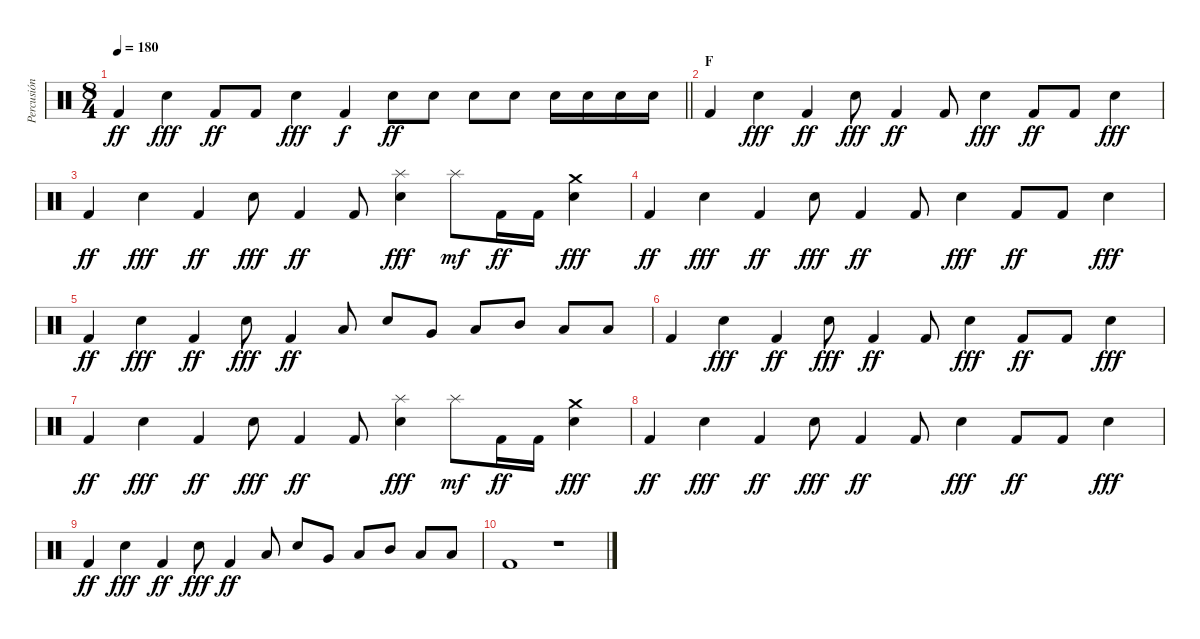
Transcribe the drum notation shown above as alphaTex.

\track ("Percusión" "Percusión") {instrument percussion}
\staff {score}
\articulation defaults
\ts (8 4)
\tempo 180
\clef neutral
\barLineRight lightlight
\ks c "Kick (hit) 2".4{dy ff} "Electric Snare (hit)".4{dy fff} "Kick (hit) 2".8{dy ff} "Kick (hit) 2".8 "Electric Snare (hit)".4{dy fff} "Kick (hit) 2".4{dy f} "Electric Snare (hit)".8{dy ff} "Electric Snare (hit)".8 "Electric Snare (hit)".8 "Electric Snare (hit)".8 "Electric Snare (hit)".16 "Electric Snare (hit)".16 "Electric Snare (hit)".16 "Electric Snare (hit)".16
|
\section ("" "F")
"Kick (hit) 2".4 "Electric Snare (hit)".4{dy fff} "Kick (hit) 2".4{dy ff} "Electric Snare (hit)".8{dy fff} "Kick (hit) 2".4{dy ff} "Kick (hit) 2".8 "Electric Snare (hit)".4{dy fff} "Kick (hit) 2".8{dy ff} "Kick (hit) 2".8 "Electric Snare (hit)".4{dy fff} |
"Kick (hit) 2".4{dy ff} "Electric Snare (hit)".4{dy fff} "Kick (hit) 2".4{dy ff} "Electric Snare (hit)".8{dy fff} "Kick (hit) 2".4{dy ff} "Kick (hit) 2".8 ("Splash (hit)" "Electric Snare (hit)").4{dy fff} "Splash (hit)".8{dy mf} "Kick (hit) 2".16{dy ff} "Kick (hit) 2".16 ("Crash medium (hit)" "Electric Snare (hit)").4{dy fff} |
"Kick (hit) 2".4{dy ff} "Electric Snare (hit)".4{dy fff} "Kick (hit) 2".4{dy ff} "Electric Snare (hit)".8{dy fff} "Kick (hit) 2".4{dy ff} "Kick (hit) 2".8 "Electric Snare (hit)".4{dy fff} "Kick (hit) 2".8{dy ff} "Kick (hit) 2".8 "Electric Snare (hit)".4{dy fff} |
"Kick (hit) 2".4{dy ff} "Electric Snare (hit)".4{dy fff} "Kick (hit) 2".4{dy ff} "Electric Snare (hit)".8{dy fff} "Kick (hit) 2".4{dy ff} "Low Floor Tom (hit)".8 "Electric Snare (hit)".8 "Very Low Tom (hit)".8 "Low Tom (hit)".8 "Mid Tom (hit)".8 "Low Tom (hit)".8 "Low Tom (hit)".8 |
"Kick (hit) 2".4 "Electric Snare (hit)".4{dy fff} "Kick (hit) 2".4{dy ff} "Electric Snare (hit)".8{dy fff} "Kick (hit) 2".4{dy ff} "Kick (hit) 2".8 "Electric Snare (hit)".4{dy fff} "Kick (hit) 2".8{dy ff} "Kick (hit) 2".8 "Electric Snare (hit)".4{dy fff} |
"Kick (hit) 2".4{dy ff} "Electric Snare (hit)".4{dy fff} "Kick (hit) 2".4{dy ff} "Electric Snare (hit)".8{dy fff} "Kick (hit) 2".4{dy ff} "Kick (hit) 2".8 ("Splash (hit)" "Electric Snare (hit)").4{dy fff} "Splash (hit)".8{dy mf} "Kick (hit) 2".16{dy ff} "Kick (hit) 2".16 ("Crash medium (hit)" "Electric Snare (hit)").4{dy fff} |
"Kick (hit) 2".4{dy ff} "Electric Snare (hit)".4{dy fff} "Kick (hit) 2".4{dy ff} "Electric Snare (hit)".8{dy fff} "Kick (hit) 2".4{dy ff} "Kick (hit) 2".8 "Electric Snare (hit)".4{dy fff} "Kick (hit) 2".8{dy ff} "Kick (hit) 2".8 "Electric Snare (hit)".4{dy fff} |
"Kick (hit) 2".4{dy ff} "Electric Snare (hit)".4{dy fff} "Kick (hit) 2".4{dy ff} "Electric Snare (hit)".8{dy fff} "Kick (hit) 2".4{dy ff} "Low Floor Tom (hit)".8 "Electric Snare (hit)".8 "Very Low Tom (hit)".8 "Low Tom (hit)".8 "Mid Tom (hit)".8 "Low Tom (hit)".8 "Low Tom (hit)".8 |
"Kick (hit) 2".1 r.1
